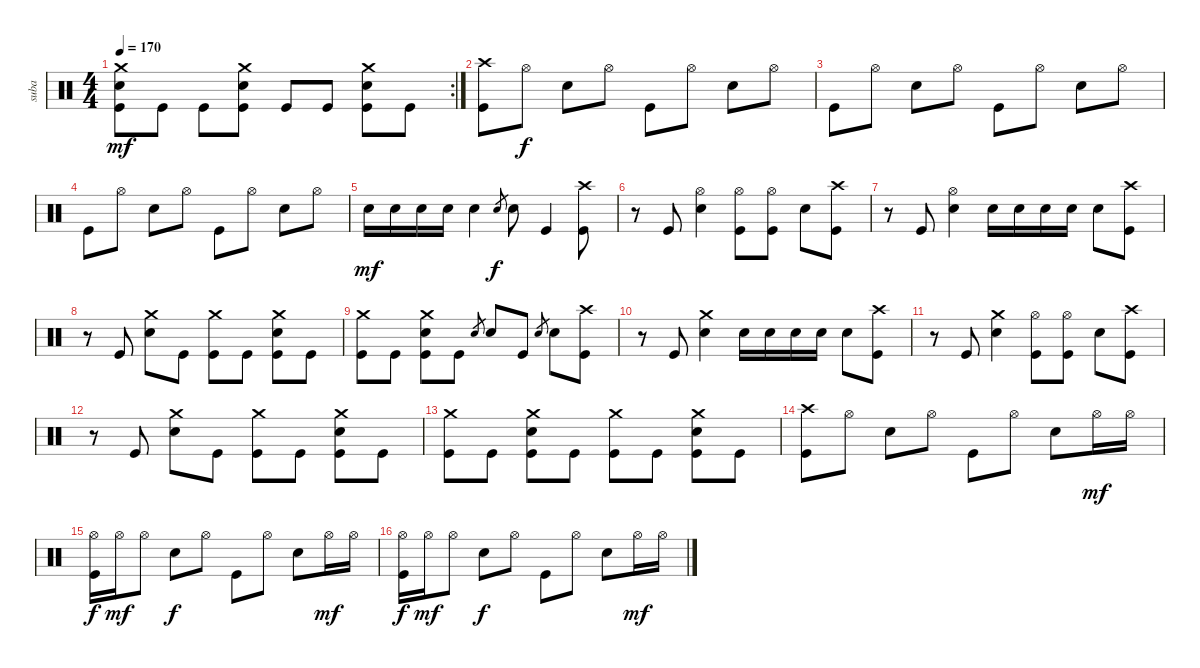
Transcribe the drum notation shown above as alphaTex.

\track ("suba" "suba") {instrument percussion}
\staff {score}
\articulation defaults
\rc 2
\ts (4 4)
\tempo 170
\clef neutral
\ks c
("Crash medium (hit)" "Electric Snare (hit)" "Kick (hit)").8{dy mf} "Kick (hit)".8 "Kick (hit)".8 ("Crash medium (hit)" "Electric Snare (hit)" "Kick (hit)").8 "Kick (hit)".8 "Kick (hit)".8 ("Crash medium (hit)" "Electric Snare (hit)" "Kick (hit)").8 "Kick (hit)".8 |
("Crash high (hit)" "Kick (hit)").8 "Hi-Hat (open)".8{dy f} "Electric Snare (hit)".8 "Hi-Hat (open)".8 "Kick (hit)".8 "Hi-Hat (open)".8 "Electric Snare (hit)".8 "Hi-Hat (open)".8 |
"Kick (hit)".8 "Hi-Hat (open)".8 "Electric Snare (hit)".8 "Hi-Hat (open)".8 "Kick (hit)".8 "Hi-Hat (open)".8 "Electric Snare (hit)".8 "Hi-Hat (open)".8 |
"Kick (hit)".8 "Hi-Hat (open)".8 "Electric Snare (hit)".8 "Hi-Hat (open)".8 "Kick (hit)".8 "Hi-Hat (open)".8 "Electric Snare (hit)".8 "Hi-Hat (open)".8 |
"Electric Snare (hit)".16{dy mf} "Electric Snare (hit)".16 "Electric Snare (hit)".16 "Electric Snare (hit)".16 "Electric Snare (hit)".4 "Electric Snare (hit)".8{gr dy f} "Electric Snare (hit)".8 "Kick (hit)".4 ("Crash high (hit)" "Kick (hit)").8 |
r.8 "Kick (hit)".8 ("Hi-Hat (open)" "Electric Snare (hit)").4 ("Hi-Hat (open)" "Kick (hit)").8 ("Hi-Hat (open)" "Kick (hit)").8 "Electric Snare (hit)".8 ("Crash high (hit)" "Kick (hit)").8 |
r.8 "Kick (hit)".8 ("Hi-Hat (open)" "Electric Snare (hit)").4 "Electric Snare (hit)".16 "Electric Snare (hit)".16 "Electric Snare (hit)".16 "Electric Snare (hit)".16 "Electric Snare (hit)".8 ("Crash high (hit)" "Kick (hit)").8 |
r.8 "Kick (hit)".8 ("Crash medium (hit)" "Electric Snare (hit)").8 "Kick (hit)".8 ("Crash medium (hit)" "Kick (hit)").8 "Kick (hit)".8 ("Crash medium (hit)" "Electric Snare (hit)" "Kick (hit)").8 "Kick (hit)".8 |
("Crash medium (hit)" "Kick (hit)").8 "Kick (hit)".8 ("Crash medium (hit)" "Electric Snare (hit)" "Kick (hit)").8 "Kick (hit)".8 "Electric Snare (hit)".8{gr} "Electric Snare (hit)".8 "Kick (hit)".8 "Electric Snare (hit)".8{gr} "Electric Snare (hit)".8 ("Crash high (hit)" "Kick (hit)").8 |
r.8 "Kick (hit)".8 ("Crash medium (hit)" "Electric Snare (hit)").4 "Electric Snare (hit)".16 "Electric Snare (hit)".16 "Electric Snare (hit)".16 "Electric Snare (hit)".16 "Electric Snare (hit)".8 ("Crash high (hit)" "Kick (hit)").8 |
r.8 "Kick (hit)".8 ("Crash medium (hit)" "Electric Snare (hit)").4 ("Hi-Hat (open)" "Kick (hit)").8 ("Hi-Hat (open)" "Kick (hit)").8 "Electric Snare (hit)".8 ("Crash high (hit)" "Kick (hit)").8 |
r.8 "Kick (hit)".8 ("Crash medium (hit)" "Electric Snare (hit)").8 "Kick (hit)".8 ("Crash medium (hit)" "Kick (hit)").8 "Kick (hit)".8 ("Crash medium (hit)" "Electric Snare (hit)" "Kick (hit)").8 "Kick (hit)".8 |
("Crash medium (hit)" "Kick (hit)").8 "Kick (hit)".8 ("Crash medium (hit)" "Electric Snare (hit)" "Kick (hit)").8 "Kick (hit)".8 ("Crash medium (hit)" "Kick (hit)").8 "Kick (hit)".8 ("Crash medium (hit)" "Electric Snare (hit)" "Kick (hit)").8 "Kick (hit)".8 |
("Crash high (hit)" "Kick (hit)").8 "Hi-Hat (open)".8 "Electric Snare (hit)".8 "Hi-Hat (open)".8 "Kick (hit)".8 "Hi-Hat (open)".8 "Electric Snare (hit)".8 "Hi-Hat (open)".16{dy mf} "Hi-Hat (open)".16 |
("Hi-Hat (open)" "Kick (hit)").16{dy f} "Hi-Hat (open)".16{dy mf} "Hi-Hat (open)".8 "Electric Snare (hit)".8{dy f} "Hi-Hat (open)".8 "Kick (hit)".8 "Hi-Hat (open)".8 "Electric Snare (hit)".8 "Hi-Hat (open)".16{dy mf} "Hi-Hat (open)".16 |
("Hi-Hat (open)" "Kick (hit)").16{dy f} "Hi-Hat (open)".16{dy mf} "Hi-Hat (open)".8 "Electric Snare (hit)".8{dy f} "Hi-Hat (open)".8 "Kick (hit)".8 "Hi-Hat (open)".8 "Electric Snare (hit)".8 "Hi-Hat (open)".16{dy mf} "Hi-Hat (open)".16
